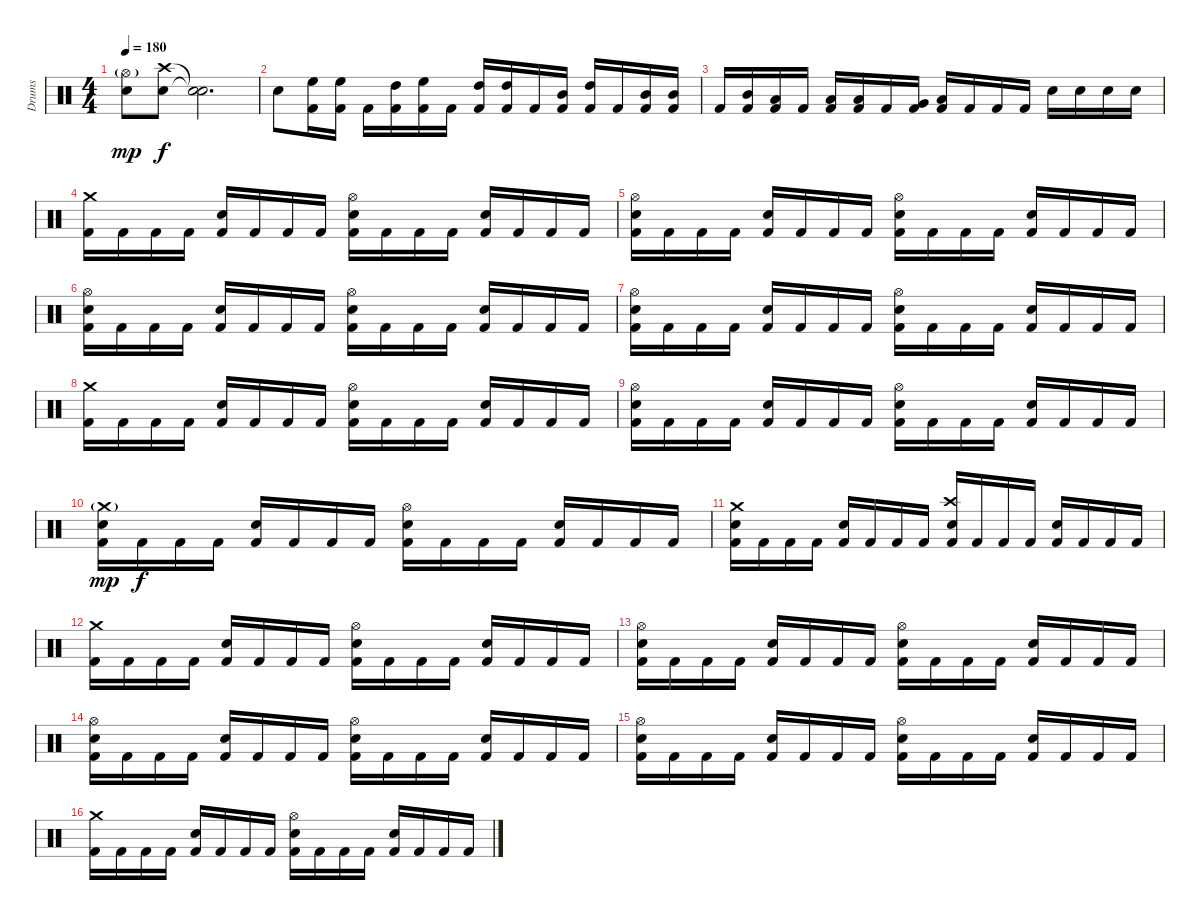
\track ("Drums" "Drums") {instrument percussion}
\staff {score}
\articulation defaults
\ts (4 4)
\tempo 180
\clef neutral
\ks c
("Hi-Hat (open)"{g} "Electric Snare (hit)").8{dy mp} ("Crash high (hit)" "Electric Snare (hit)").8{dy f} ("Snare (hit)"{t} "Snare (hit)"{t}).2{d} |
"Electric Snare (hit)".8 ("High Floor Tom (hit)" "Kick (hit) 2").16 ("High Floor Tom (hit)" "Kick (hit) 2").16 "Kick (hit) 2".16 ("High Tom (hit)" "Kick (hit) 2").16 ("High Floor Tom (hit)" "Kick (hit) 2").16 "Kick (hit) 2".16 ("High Tom (hit)" "Kick (hit) 2").16 ("High Tom (hit)" "Kick (hit) 2").16 "Kick (hit) 2".16 ("Mid Tom (hit)" "Kick (hit) 2").16 ("High Tom (hit)" "Kick (hit) 2").16 "Kick (hit) 2".16 ("Mid Tom (hit)" "Kick (hit) 2").16 ("Mid Tom (hit)" "Kick (hit) 2").16 |
"Kick (hit) 2".16 ("Mid Tom (hit)" "Kick (hit) 2").16 ("Low Tom (hit)" "Kick (hit) 2").16 "Kick (hit) 2".16 ("Low Tom (hit)" "Kick (hit) 2").16 ("Low Tom (hit)" "Kick (hit) 2").16 "Kick (hit) 2".16 ("Very Low Tom (hit)" "Kick (hit) 2").16 ("Low Tom (hit)" "Kick (hit) 2").16 "Kick (hit) 2".16 "Kick (hit) 2".16 "Kick (hit) 2".16 "Electric Snare (hit)".16 "Electric Snare (hit)".16 "Electric Snare (hit)".16 "Electric Snare (hit)".16 |
("Crash medium (hit)" "Kick (hit) 2").16 "Kick (hit) 2".16 "Kick (hit) 2".16 "Kick (hit) 2".16 ("Electric Snare (hit)" "Kick (hit) 2").16 "Kick (hit) 2".16 "Kick (hit) 2".16 "Kick (hit) 2".16 ("Hi-Hat (open)" "Electric Snare (hit)" "Kick (hit) 2").16 "Kick (hit) 2".16 "Kick (hit) 2".16 "Kick (hit) 2".16 ("Electric Snare (hit)" "Kick (hit) 2").16 "Kick (hit) 2".16 "Kick (hit) 2".16 "Kick (hit) 2".16 |
("Hi-Hat (open)" "Electric Snare (hit)" "Kick (hit) 2").16 "Kick (hit) 2".16 "Kick (hit) 2".16 "Kick (hit) 2".16 ("Electric Snare (hit)" "Kick (hit) 2").16 "Kick (hit) 2".16 "Kick (hit) 2".16 "Kick (hit) 2".16 ("Hi-Hat (open)" "Electric Snare (hit)" "Kick (hit) 2").16 "Kick (hit) 2".16 "Kick (hit) 2".16 "Kick (hit) 2".16 ("Electric Snare (hit)" "Kick (hit) 2").16 "Kick (hit) 2".16 "Kick (hit) 2".16 "Kick (hit) 2".16 |
("Hi-Hat (open)" "Electric Snare (hit)" "Kick (hit) 2").16 "Kick (hit) 2".16 "Kick (hit) 2".16 "Kick (hit) 2".16 ("Electric Snare (hit)" "Kick (hit) 2").16 "Kick (hit) 2".16 "Kick (hit) 2".16 "Kick (hit) 2".16 ("Hi-Hat (open)" "Electric Snare (hit)" "Kick (hit) 2").16 "Kick (hit) 2".16 "Kick (hit) 2".16 "Kick (hit) 2".16 ("Electric Snare (hit)" "Kick (hit) 2").16 "Kick (hit) 2".16 "Kick (hit) 2".16 "Kick (hit) 2".16 |
("Hi-Hat (open)" "Electric Snare (hit)" "Kick (hit) 2").16 "Kick (hit) 2".16 "Kick (hit) 2".16 "Kick (hit) 2".16 ("Electric Snare (hit)" "Kick (hit) 2").16 "Kick (hit) 2".16 "Kick (hit) 2".16 "Kick (hit) 2".16 ("Hi-Hat (open)" "Electric Snare (hit)" "Kick (hit) 2").16 "Kick (hit) 2".16 "Kick (hit) 2".16 "Kick (hit) 2".16 ("Electric Snare (hit)" "Kick (hit) 2").16 "Kick (hit) 2".16 "Kick (hit) 2".16 "Kick (hit) 2".16 |
("Crash medium (hit)" "Kick (hit) 2").16 "Kick (hit) 2".16 "Kick (hit) 2".16 "Kick (hit) 2".16 ("Electric Snare (hit)" "Kick (hit) 2").16 "Kick (hit) 2".16 "Kick (hit) 2".16 "Kick (hit) 2".16 ("Hi-Hat (open)" "Electric Snare (hit)" "Kick (hit) 2").16 "Kick (hit) 2".16 "Kick (hit) 2".16 "Kick (hit) 2".16 ("Electric Snare (hit)" "Kick (hit) 2").16 "Kick (hit) 2".16 "Kick (hit) 2".16 "Kick (hit) 2".16 |
("Hi-Hat (open)" "Electric Snare (hit)" "Kick (hit) 2").16 "Kick (hit) 2".16 "Kick (hit) 2".16 "Kick (hit) 2".16 ("Electric Snare (hit)" "Kick (hit) 2").16 "Kick (hit) 2".16 "Kick (hit) 2".16 "Kick (hit) 2".16 ("Hi-Hat (open)" "Electric Snare (hit)" "Kick (hit) 2").16 "Kick (hit) 2".16 "Kick (hit) 2".16 "Kick (hit) 2".16 ("Electric Snare (hit)" "Kick (hit) 2").16 "Kick (hit) 2".16 "Kick (hit) 2".16 "Kick (hit) 2".16 |
("Crash medium (hit)"{g} "Electric Snare (hit)" "Kick (hit) 2").16{dy mp} "Kick (hit) 2".16{dy f} "Kick (hit) 2".16 "Kick (hit) 2".16 ("Electric Snare (hit)" "Kick (hit) 2").16 "Kick (hit) 2".16 "Kick (hit) 2".16 "Kick (hit) 2".16 ("Hi-Hat (open)" "Electric Snare (hit)" "Kick (hit) 2").16 "Kick (hit) 2".16 "Kick (hit) 2".16 "Kick (hit) 2".16 ("Electric Snare (hit)" "Kick (hit) 2").16 "Kick (hit) 2".16 "Kick (hit) 2".16 "Kick (hit) 2".16 |
("Crash medium (hit)" "Electric Snare (hit)" "Kick (hit) 2").16 "Kick (hit) 2".16 "Kick (hit) 2".16 "Kick (hit) 2".16 ("Electric Snare (hit)" "Kick (hit) 2").16 "Kick (hit) 2".16 "Kick (hit) 2".16 "Kick (hit) 2".16 ("Crash high (hit)" "Electric Snare (hit)" "Kick (hit) 2").16 "Kick (hit) 2".16 "Kick (hit) 2".16 "Kick (hit) 2".16 ("Electric Snare (hit)" "Kick (hit) 2").16 "Kick (hit) 2".16 "Kick (hit) 2".16 "Kick (hit) 2".16 |
("Crash medium (hit)" "Kick (hit) 2").16 "Kick (hit) 2".16 "Kick (hit) 2".16 "Kick (hit) 2".16 ("Electric Snare (hit)" "Kick (hit) 2").16 "Kick (hit) 2".16 "Kick (hit) 2".16 "Kick (hit) 2".16 ("Hi-Hat (open)" "Electric Snare (hit)" "Kick (hit) 2").16 "Kick (hit) 2".16 "Kick (hit) 2".16 "Kick (hit) 2".16 ("Electric Snare (hit)" "Kick (hit) 2").16 "Kick (hit) 2".16 "Kick (hit) 2".16 "Kick (hit) 2".16 |
("Hi-Hat (open)" "Electric Snare (hit)" "Kick (hit) 2").16 "Kick (hit) 2".16 "Kick (hit) 2".16 "Kick (hit) 2".16 ("Electric Snare (hit)" "Kick (hit) 2").16 "Kick (hit) 2".16 "Kick (hit) 2".16 "Kick (hit) 2".16 ("Hi-Hat (open)" "Electric Snare (hit)" "Kick (hit) 2").16 "Kick (hit) 2".16 "Kick (hit) 2".16 "Kick (hit) 2".16 ("Electric Snare (hit)" "Kick (hit) 2").16 "Kick (hit) 2".16 "Kick (hit) 2".16 "Kick (hit) 2".16 |
("Hi-Hat (open)" "Electric Snare (hit)" "Kick (hit) 2").16 "Kick (hit) 2".16 "Kick (hit) 2".16 "Kick (hit) 2".16 ("Electric Snare (hit)" "Kick (hit) 2").16 "Kick (hit) 2".16 "Kick (hit) 2".16 "Kick (hit) 2".16 ("Hi-Hat (open)" "Electric Snare (hit)" "Kick (hit) 2").16 "Kick (hit) 2".16 "Kick (hit) 2".16 "Kick (hit) 2".16 ("Electric Snare (hit)" "Kick (hit) 2").16 "Kick (hit) 2".16 "Kick (hit) 2".16 "Kick (hit) 2".16 |
("Hi-Hat (open)" "Electric Snare (hit)" "Kick (hit) 2").16 "Kick (hit) 2".16 "Kick (hit) 2".16 "Kick (hit) 2".16 ("Electric Snare (hit)" "Kick (hit) 2").16 "Kick (hit) 2".16 "Kick (hit) 2".16 "Kick (hit) 2".16 ("Hi-Hat (open)" "Electric Snare (hit)" "Kick (hit) 2").16 "Kick (hit) 2".16 "Kick (hit) 2".16 "Kick (hit) 2".16 ("Electric Snare (hit)" "Kick (hit) 2").16 "Kick (hit) 2".16 "Kick (hit) 2".16 "Kick (hit) 2".16 |
("Crash medium (hit)" "Kick (hit) 2").16 "Kick (hit) 2".16 "Kick (hit) 2".16 "Kick (hit) 2".16 ("Electric Snare (hit)" "Kick (hit) 2").16 "Kick (hit) 2".16 "Kick (hit) 2".16 "Kick (hit) 2".16 ("Hi-Hat (open)" "Electric Snare (hit)" "Kick (hit) 2").16 "Kick (hit) 2".16 "Kick (hit) 2".16 "Kick (hit) 2".16 ("Electric Snare (hit)" "Kick (hit) 2").16 "Kick (hit) 2".16 "Kick (hit) 2".16 "Kick (hit) 2".16
